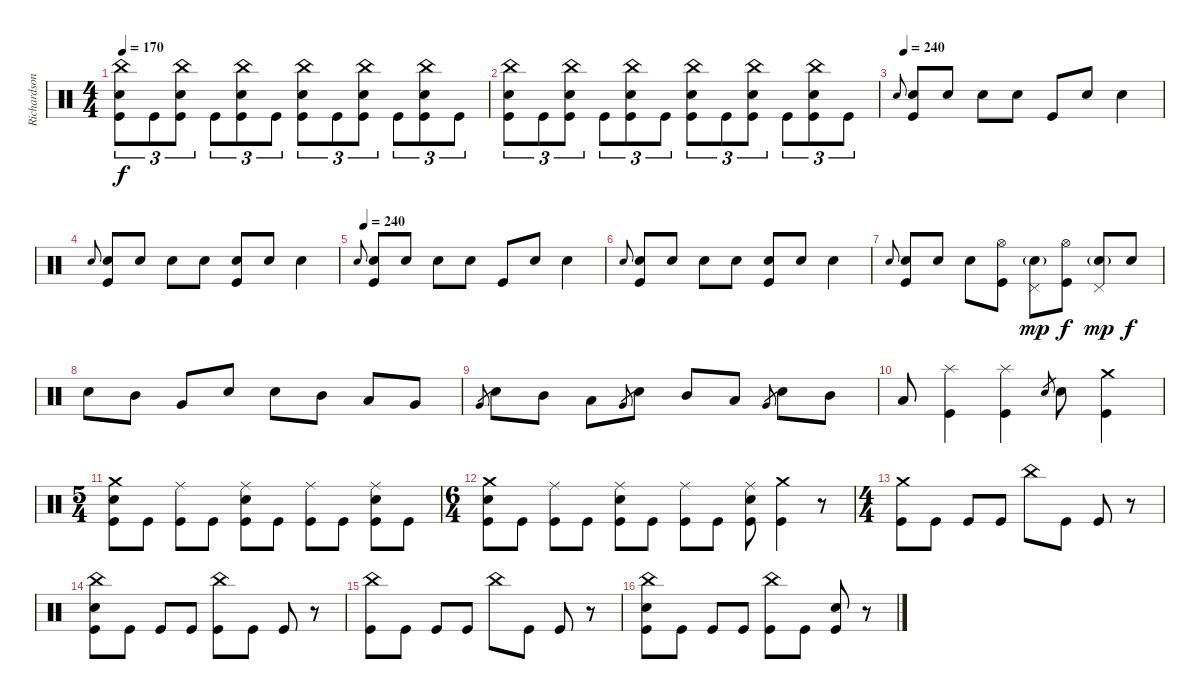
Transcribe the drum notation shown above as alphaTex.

\track ("Richardson" "Richardson") {instrument percussion}
\staff {score}
\articulation defaults
\ts (4 4)
\tempo 170
\clef neutral
\ks c
("China (hit)" "Electric Snare (hit)" "Kick (hit)").8{tu (3 2) dy f} "Kick (hit)".8{tu (3 2)} ("China (hit)" "Electric Snare (hit)" "Kick (hit)").8{tu (3 2)} "Kick (hit)".8{tu (3 2)} ("China (hit)" "Electric Snare (hit)" "Kick (hit)").8{tu (3 2)} "Kick (hit)".8{tu (3 2)} ("China (hit)" "Electric Snare (hit)" "Kick (hit)").8{tu (3 2)} "Kick (hit)".8{tu (3 2)} ("China (hit)" "Electric Snare (hit)" "Kick (hit)").8{tu (3 2)} "Kick (hit)".8{tu (3 2)} ("China (hit)" "Electric Snare (hit)" "Kick (hit)").8{tu (3 2)} "Kick (hit)".8{tu (3 2)} |
("China (hit)" "Electric Snare (hit)" "Kick (hit)").8{tu (3 2)} "Kick (hit)".8{tu (3 2)} ("China (hit)" "Electric Snare (hit)" "Kick (hit)").8{tu (3 2)} "Kick (hit)".8{tu (3 2)} ("China (hit)" "Electric Snare (hit)" "Kick (hit)").8{tu (3 2)} "Kick (hit)".8{tu (3 2)} ("China (hit)" "Electric Snare (hit)" "Kick (hit)").8{tu (3 2)} "Kick (hit)".8{tu (3 2)} ("China (hit)" "Electric Snare (hit)" "Kick (hit)").8{tu (3 2)} "Kick (hit)".8{tu (3 2)} ("China (hit)" "Electric Snare (hit)" "Kick (hit)").8{tu (3 2)} "Kick (hit)".8{tu (3 2)} |
\tempo (240 0.03125)
"Electric Snare (hit)".8{gr onbeat} ("Electric Snare (hit)" "Kick (hit)").8 "Electric Snare (hit)".8 "Electric Snare (hit)".8 "Electric Snare (hit)".8 "Kick (hit)".8 "Electric Snare (hit)".8 "Electric Snare (hit)".4 |
"Electric Snare (hit)".8{gr onbeat} ("Electric Snare (hit)" "Kick (hit)").8 "Electric Snare (hit)".8 "Electric Snare (hit)".8 "Electric Snare (hit)".8 ("Electric Snare (hit)" "Kick (hit)").8 "Electric Snare (hit)".8 "Electric Snare (hit)".4 |
\tempo (240 0.03125)
"Electric Snare (hit)".8{gr onbeat} ("Electric Snare (hit)" "Kick (hit)").8 "Electric Snare (hit)".8 "Electric Snare (hit)".8 "Electric Snare (hit)".8 "Kick (hit)".8 "Electric Snare (hit)".8 "Electric Snare (hit)".4 |
"Electric Snare (hit)".8{gr onbeat} ("Electric Snare (hit)" "Kick (hit)").8 "Electric Snare (hit)".8 "Electric Snare (hit)".8 "Electric Snare (hit)".8 ("Electric Snare (hit)" "Kick (hit)").8 "Electric Snare (hit)".8 "Electric Snare (hit)".4 |
"Electric Snare (hit)".8{gr onbeat} ("Electric Snare (hit)" "Kick (hit)").8 "Electric Snare (hit)".8 "Electric Snare (hit)".8 ("Hi-Hat (open)" "Kick (hit)").8 ("Pedal Hi-Hat (hit)" "Electric Snare (hit)"{g}).8{dy mp} ("Hi-Hat (open)" "Kick (hit)").8{dy f} ("Pedal Hi-Hat (hit)" "Electric Snare (hit)"{g}).8{dy mp} "Electric Snare (hit)".8{dy f} |
"Electric Snare (hit)".8 "Mid Tom (hit)".8 "Very Low Tom (hit)".8 "Electric Snare (hit)".8 "Electric Snare (hit)".8 "Mid Tom (hit)".8 "Low Tom (hit)".8 "Very Low Tom (hit)".8 |
"Very Low Tom (hit)".8{gr} "Electric Snare (hit)".8 "Mid Tom (hit)".8 "Low Tom (hit)".8 "Very Low Tom (hit)".8{gr} "Electric Snare (hit)".8 "Mid Tom (hit)".8 "Low Tom (hit)".8 "Very Low Tom (hit)".8{gr} "Electric Snare (hit)".8 "Mid Tom (hit)".8 |
"Low Tom (hit)".8 ("Splash (hit)" "Kick (hit)").4 ("Splash (hit)" "Kick (hit)").4 "Electric Snare (hit)".8{gr} "Electric Snare (hit)".8 ("Crash medium (hit)" "Kick (hit)").4 |
\ts (5 4)
("Crash medium (hit)" "Electric Snare (hit)" "Kick (hit)").8 "Kick (hit)".8 ("Ride (middle)" "Kick (hit)").8 "Kick (hit)".8 ("Ride (middle)" "Electric Snare (hit)" "Kick (hit)").8 "Kick (hit)".8 ("Ride (middle)" "Kick (hit)").8 "Kick (hit)".8 ("Ride (middle)" "Electric Snare (hit)" "Kick (hit)").8 "Kick (hit)".8 |
\ts (6 4)
("Crash medium (hit)" "Electric Snare (hit)" "Kick (hit)").8 "Kick (hit)".8 ("Ride (middle)" "Kick (hit)").8 "Kick (hit)".8 ("Ride (middle)" "Electric Snare (hit)" "Kick (hit)").8 "Kick (hit)".8 ("Ride (middle)" "Kick (hit)").8 "Kick (hit)".8 ("Ride (middle)" "Electric Snare (hit)" "Kick (hit)").8 ("Crash medium (hit)" "Kick (hit)").4 r.8 |
\ts (4 4)
("Crash medium (hit)" "Kick (hit)").8 "Kick (hit)".8 "Kick (hit)".8 "Kick (hit)".8 "China (hit)".8 "Kick (hit)".8 "Kick (hit)".8 r.8 |
("China (hit)" "Electric Snare (hit)" "Kick (hit)").8 "Kick (hit)".8 "Kick (hit)".8 "Kick (hit)".8 ("China (hit)" "Kick (hit)").8 "Kick (hit)".8 "Kick (hit)".8 r.8 |
("China (hit)" "Kick (hit)").8 "Kick (hit)".8 "Kick (hit)".8 "Kick (hit)".8 "China (hit)".8 "Kick (hit)".8 "Kick (hit)".8 r.8 |
("China (hit)" "Electric Snare (hit)" "Kick (hit)").8 "Kick (hit)".8 "Kick (hit)".8 "Kick (hit)".8 ("China (hit)" "Kick (hit)").8 "Kick (hit)".8 ("Electric Snare (hit)" "Kick (hit)").8 r.8
